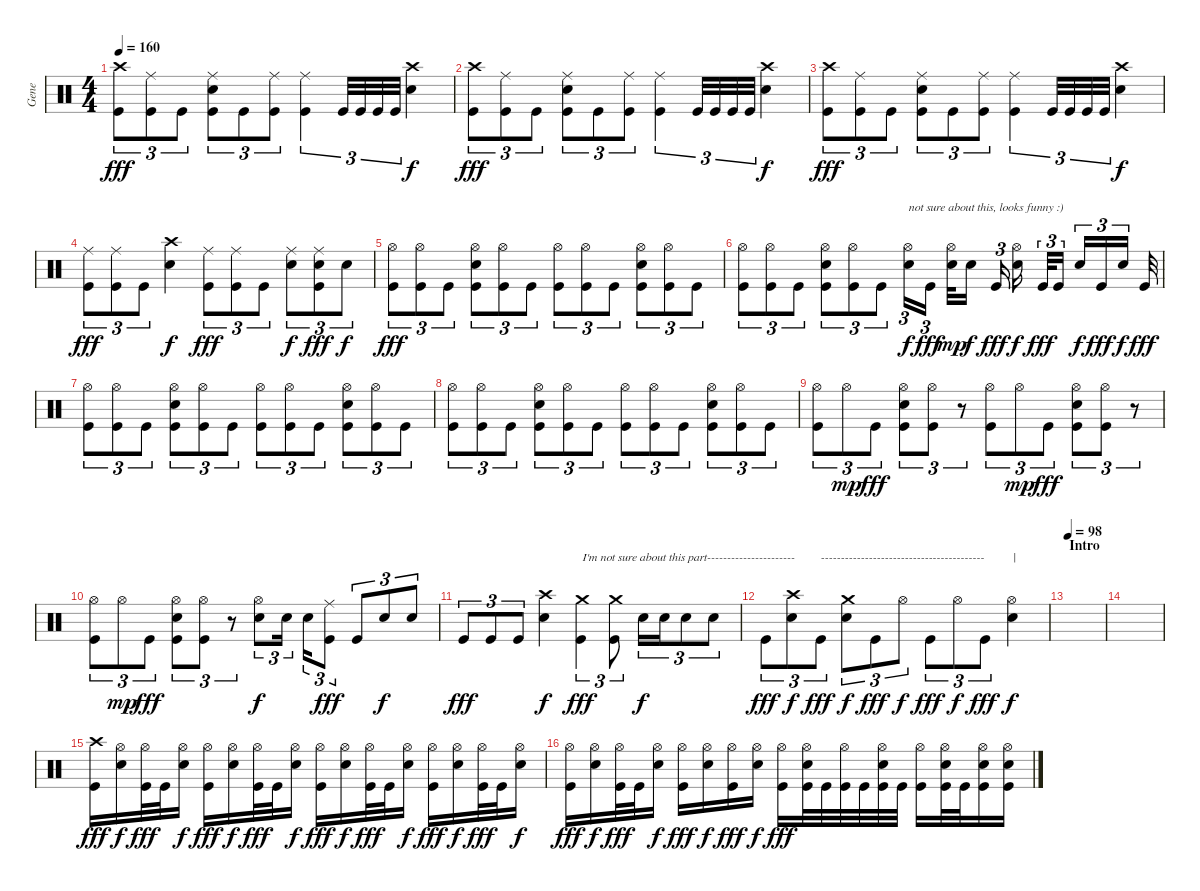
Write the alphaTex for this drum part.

\track ("Gene" "Gene") {instrument percussion}
\staff {score}
\articulation defaults
\ts (4 4)
\tempo 160
\clef neutral
\ks c
("Crash high (hit)" "Kick (hit)").8{tu (3 2) dy fff} ("Ride (middle)" "Kick (hit)").8{tu (3 2)} "Kick (hit)".8{tu (3 2)} ("Ride (middle)" "Snare (hit) 2" "Kick (hit)").8{tu (3 2)} "Kick (hit)".8{tu (3 2)} ("Ride (middle)" "Kick (hit)").8{tu (3 2)} ("Ride (middle)" "Kick (hit)").4{tu (3 2)} "Kick (hit)".32{tu (3 2)} "Kick (hit)".32{tu (3 2)} "Kick (hit)".32{tu (3 2)} "Kick (hit)".32{tu (3 2)} ("Crash high (hit)" "Snare (hit) 2").4{dy f} |
("Crash high (hit)" "Kick (hit)").8{tu (3 2) dy fff} ("Ride (middle)" "Kick (hit)").8{tu (3 2)} "Kick (hit)".8{tu (3 2)} ("Ride (middle)" "Snare (hit) 2" "Kick (hit)").8{tu (3 2)} "Kick (hit)".8{tu (3 2)} ("Ride (middle)" "Kick (hit)").8{tu (3 2)} ("Ride (middle)" "Kick (hit)").4{tu (3 2)} "Kick (hit)".32{tu (3 2)} "Kick (hit)".32{tu (3 2)} "Kick (hit)".32{tu (3 2)} "Kick (hit)".32{tu (3 2)} ("Crash high (hit)" "Snare (hit) 2").4{dy f} |
("Crash high (hit)" "Kick (hit)").8{tu (3 2) dy fff} ("Ride (middle)" "Kick (hit)").8{tu (3 2)} "Kick (hit)".8{tu (3 2)} ("Ride (middle)" "Snare (hit) 2" "Kick (hit)").8{tu (3 2)} "Kick (hit)".8{tu (3 2)} ("Ride (middle)" "Kick (hit)").8{tu (3 2)} ("Ride (middle)" "Kick (hit)").4{tu (3 2)} "Kick (hit)".32{tu (3 2)} "Kick (hit)".32{tu (3 2)} "Kick (hit)".32{tu (3 2)} "Kick (hit)".32{tu (3 2)} ("Crash high (hit)" "Snare (hit) 2").4{dy f} |
("Ride (middle)" "Kick (hit)").8{tu (3 2) dy fff} ("Ride (middle)" "Kick (hit)").8{tu (3 2)} "Kick (hit)".8{tu (3 2)} ("Crash high (hit)" "Snare (hit) 2").4{dy f} ("Ride (middle)" "Kick (hit)").8{tu (3 2) dy fff} ("Ride (middle)" "Kick (hit)").8{tu (3 2)} "Kick (hit)".8{tu (3 2)} ("Ride (middle)" "Snare (hit) 2").8{tu (3 2) dy f} ("Ride (middle)" "Snare (hit) 2" "Kick (hit)").8{tu (3 2) dy fff} "Snare (hit) 2".8{tu (3 2) dy f} |
("Hi-Hat (open)" "Kick (hit)").8{tu (3 2) dy fff} ("Hi-Hat (open)" "Kick (hit)").8{tu (3 2)} "Kick (hit)".8{tu (3 2)} ("Hi-Hat (open)" "Snare (hit) 2" "Kick (hit)").8{tu (3 2)} ("Hi-Hat (open)" "Kick (hit)").8{tu (3 2)} "Kick (hit)".8{tu (3 2)} ("Hi-Hat (open)" "Kick (hit)").8{tu (3 2)} ("Hi-Hat (open)" "Kick (hit)").8{tu (3 2)} "Kick (hit)".8{tu (3 2)} ("Hi-Hat (open)" "Snare (hit) 2" "Kick (hit)").8{tu (3 2)} ("Hi-Hat (open)" "Kick (hit)").8{tu (3 2)} "Kick (hit)".8{tu (3 2)} |
("Hi-Hat (open)" "Kick (hit)").8{tu (3 2)} ("Hi-Hat (open)" "Kick (hit)").8{tu (3 2)} "Kick (hit)".8{tu (3 2)} ("Hi-Hat (open)" "Snare (hit) 2" "Kick (hit)").8{tu (3 2)} ("Hi-Hat (open)" "Kick (hit)").8{tu (3 2)} "Kick (hit)".8{tu (3 2)} ("Hi-Hat (open)" "Snare (hit) 2").16{tu (3 2) txt "not sure about this, looks funny :)" dy f} "Kick (hit)".16{tu (3 2) dy fff} ("Hi-Hat (open)" "Snare (hit) 2").32{dy mp} "Snare (hit) 2".16{dy f} "Kick (hit)".16{tu (3 2) dy fff} ("Hi-Hat (open)" "Snare (hit) 2").16{dy f} "Kick (hit)".32{tu (3 2) dy fff} "Kick (hit)".16{tu (3 2)} "Snare (hit) 2".16{tu (3 2) dy f} "Kick (hit)".16{tu (3 2) dy fff} "Snare (hit) 2".16{tu (3 2) dy f} "Kick (hit)".32{dy fff} |
("Hi-Hat (open)" "Kick (hit)").8{tu (3 2)} ("Hi-Hat (open)" "Kick (hit)").8{tu (3 2)} "Kick (hit)".8{tu (3 2)} ("Hi-Hat (open)" "Snare (hit) 2" "Kick (hit)").8{tu (3 2)} ("Hi-Hat (open)" "Kick (hit)").8{tu (3 2)} "Kick (hit)".8{tu (3 2)} ("Hi-Hat (open)" "Kick (hit)").8{tu (3 2)} ("Hi-Hat (open)" "Kick (hit)").8{tu (3 2)} "Kick (hit)".8{tu (3 2)} ("Hi-Hat (open)" "Snare (hit) 2" "Kick (hit)").8{tu (3 2)} ("Hi-Hat (open)" "Kick (hit)").8{tu (3 2)} "Kick (hit)".8{tu (3 2)} |
("Hi-Hat (open)" "Kick (hit)").8{tu (3 2)} ("Hi-Hat (open)" "Kick (hit)").8{tu (3 2)} "Kick (hit)".8{tu (3 2)} ("Hi-Hat (open)" "Snare (hit) 2" "Kick (hit)").8{tu (3 2)} ("Hi-Hat (open)" "Kick (hit)").8{tu (3 2)} "Kick (hit)".8{tu (3 2)} ("Hi-Hat (open)" "Kick (hit)").8{tu (3 2)} ("Hi-Hat (open)" "Kick (hit)").8{tu (3 2)} "Kick (hit)".8{tu (3 2)} ("Hi-Hat (open)" "Snare (hit) 2" "Kick (hit)").8{tu (3 2)} ("Hi-Hat (open)" "Kick (hit)").8{tu (3 2)} "Kick (hit)".8{tu (3 2)} |
("Hi-Hat (open)" "Kick (hit)").8{tu (3 2)} "Hi-Hat (open)".8{tu (3 2) dy mp} "Kick (hit)".8{tu (3 2) dy fff} ("Hi-Hat (open)" "Snare (hit) 2" "Kick (hit)").8{tu (3 2)} ("Hi-Hat (open)" "Kick (hit)").8{tu (3 2)} r.8{tu (3 2)} ("Hi-Hat (open)" "Kick (hit)").8{tu (3 2)} "Hi-Hat (open)".8{tu (3 2) dy mp} "Kick (hit)".8{tu (3 2) dy fff} ("Hi-Hat (open)" "Snare (hit) 2" "Kick (hit)").8{tu (3 2)} ("Hi-Hat (open)" "Kick (hit)").8{tu (3 2)} r.8{tu (3 2)} |
("Hi-Hat (open)" "Kick (hit)").8{tu (3 2)} "Hi-Hat (open)".8{tu (3 2) dy mp} "Kick (hit)".8{tu (3 2) dy fff} ("Hi-Hat (open)" "Snare (hit) 2" "Kick (hit)").8{tu (3 2)} ("Hi-Hat (open)" "Kick (hit)").8{tu (3 2)} r.8{tu (3 2)} ("Hi-Hat (open)" "Snare (hit) 2").8{tu (3 2) dy f} "Snare (hit) 2".16{tu (3 2)} "Snare (hit) 2".16{tu (3 2)} ("Ride (middle)" "Kick (hit)").8{tu (3 2) dy fff} "Kick (hit)".8{tu (3 2)} "Snare (hit) 2".8{tu (3 2) dy f} "Snare (hit) 2".8{tu (3 2)} |
"Kick (hit)".8{tu (3 2) dy fff} "Kick (hit)".8{tu (3 2)} "Kick (hit)".8{tu (3 2)} ("Crash high (hit)" "Snare (hit) 2").4{dy f} ("Crash medium (hit)" "Kick (hit)").4{tu (3 2) txt "I'm not sure about this part----------------------" dy fff} ("Crash medium (hit)" "Kick (hit)").8{tu (3 2)} "Snare (hit) 2".16{tu (3 2) dy f} "Snare (hit) 2".16{tu (3 2)} "Snare (hit) 2".8{tu (3 2)} "Snare (hit) 2".8{tu (3 2)} |
"Kick (hit)".8{tu (3 2) dy fff} ("Crash high (hit)" "Snare (hit) 2").8{tu (3 2) dy f} "Kick (hit)".8{tu (3 2) txt "-----------------------------------------" dy fff} ("Crash medium (hit)" "Snare (hit) 2").8{tu (3 2) dy f} "Kick (hit)".8{tu (3 2) dy fff} "Hi-Hat (open)".8{tu (3 2) dy f} "Kick (hit)".8{tu (3 2) dy fff} "Hi-Hat (open)".8{tu (3 2) dy f} "Kick (hit)".8{tu (3 2) dy fff} ("Hi-Hat (open)" "Snare (hit) 2").4{txt "|" dy f} |
\section ("" "Intro")
\tempo 98
|
|
("Crash high (hit)" "Kick (hit)").16{dy fff} ("Hi-Hat (open)" "Snare (hit) 2").16{dy f} ("Hi-Hat (open)" "Kick (hit)").32{dy fff} "Kick (hit)".32 ("Hi-Hat (open)" "Snare (hit) 2").16{dy f} ("Hi-Hat (open)" "Kick (hit)").16{dy fff} ("Hi-Hat (open)" "Snare (hit) 2").16{dy f} ("Hi-Hat (open)" "Kick (hit)").32{dy fff} "Kick (hit)".32 ("Hi-Hat (open)" "Snare (hit) 2").16{dy f} ("Hi-Hat (open)" "Kick (hit)").16{dy fff} ("Hi-Hat (open)" "Snare (hit) 2").16{dy f} ("Hi-Hat (open)" "Kick (hit)").32{dy fff} "Kick (hit)".32 ("Hi-Hat (open)" "Snare (hit) 2").16{dy f} ("Hi-Hat (open)" "Kick (hit)").16{dy fff} ("Hi-Hat (open)" "Snare (hit) 2").16{dy f} ("Hi-Hat (open)" "Kick (hit)").32{dy fff} "Kick (hit)".32 ("Hi-Hat (open)" "Snare (hit) 2").16{dy f} |
("Hi-Hat (open)" "Kick (hit)").16{dy fff} ("Hi-Hat (open)" "Snare (hit) 2").16{dy f} ("Hi-Hat (open)" "Kick (hit)").32{dy fff} "Kick (hit)".32 ("Hi-Hat (open)" "Snare (hit) 2").16{dy f} ("Hi-Hat (open)" "Kick (hit)").16{dy fff} ("Hi-Hat (open)" "Snare (hit) 2").16{dy f} ("Hi-Hat (open)" "Kick (hit)").16{dy fff} ("Hi-Hat (open)" "Snare (hit) 2").16{dy f} ("Hi-Hat (open)" "Kick (hit)").16{dy fff} ("Hi-Hat (open)" "Snare (hit) 2" "Kick (hit)").32 "Kick (hit)".32 ("Hi-Hat (open)" "Kick (hit)").32 "Kick (hit)".32 ("Hi-Hat (open)" "Snare (hit) 2" "Kick (hit)").32 "Kick (hit)".32 ("Hi-Hat (open)" "Kick (hit)").16 ("Hi-Hat (open)" "Snare (hit) 2" "Kick (hit)").32 "Kick (hit)".32 ("Hi-Hat (open)" "Snare (hit) 2" "Kick (hit)").16 ("Hi-Hat (open)" "Snare (hit) 2" "Kick (hit)").16
